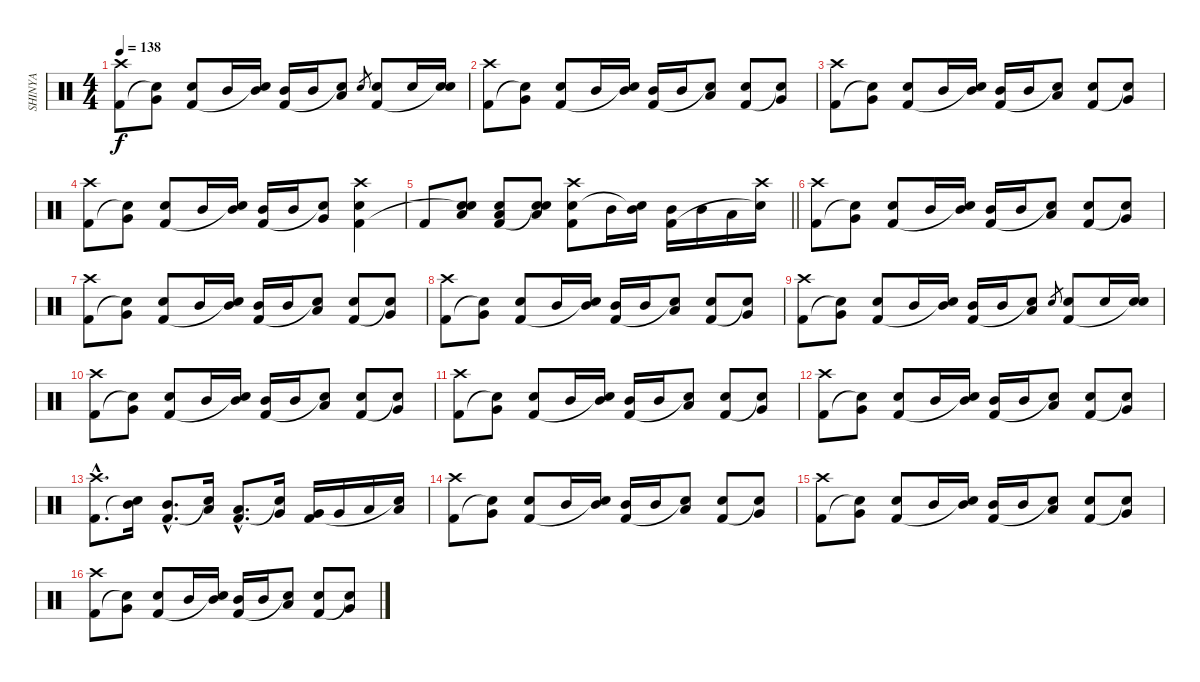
\track ("SHINYA" "SHINYA") {instrument percussion}
\staff {score}
\articulation defaults
\ts (4 4)
\tempo 138
\clef neutral
\ks c
("Crash high (hit)" "Kick (hit) 2").8{dy f} ("Very Low Tom (hit)" "Snare (hit)"{t}).8 ("Electric Snare (hit)" "Kick (hit) 2").8 "Mid Tom (hit)".16 ("Mid Tom (hit)" "Snare (hit)"{t}).16 ("Mid Tom (hit)" "Kick (hit) 2").16 "Mid Tom (hit)".16 ("Low Tom (hit)" "Snare (hit)"{t}).8 "Electric Snare (hit)".8{gr} ("Electric Snare (hit)" "Kick (hit) 2").8 "Electric Snare (hit)".16 ("Electric Snare (hit)" "Snare (hit)"{t}).16 |
("Crash high (hit)" "Kick (hit) 2").8 ("Very Low Tom (hit)" "Snare (hit)"{t}).8 ("Electric Snare (hit)" "Kick (hit) 2").8 "Mid Tom (hit)".16 ("Mid Tom (hit)" "Snare (hit)"{t}).16 ("Mid Tom (hit)" "Kick (hit) 2").16 "Mid Tom (hit)".16 ("Low Tom (hit)" "Snare (hit)"{t}).8 ("Electric Snare (hit)" "Kick (hit) 2").8 ("Very Low Tom (hit)" "Snare (hit)"{t}).8 |
("Crash high (hit)" "Kick (hit) 2").8 ("Very Low Tom (hit)" "Snare (hit)"{t}).8 ("Electric Snare (hit)" "Kick (hit) 2").8 "Mid Tom (hit)".16 ("Mid Tom (hit)" "Snare (hit)"{t}).16 ("Mid Tom (hit)" "Kick (hit) 2").16 "Mid Tom (hit)".16 ("Low Tom (hit)" "Snare (hit)"{t}).8 ("Electric Snare (hit)" "Kick (hit) 2").8 ("Very Low Tom (hit)" "Snare (hit)"{t}).8 |
("Crash high (hit)" "Kick (hit) 2").8 ("Very Low Tom (hit)" "Snare (hit)"{t}).8 ("Electric Snare (hit)" "Kick (hit) 2").8 "Mid Tom (hit)".16 ("Mid Tom (hit)" "Snare (hit)"{t}).16 ("Mid Tom (hit)" "Kick (hit) 2").16 "Mid Tom (hit)".16 ("Very Low Tom (hit)" "Snare (hit)"{t}).8 ("Crash high (hit)" "Electric Snare (hit)" "Kick (hit) 2").4 |
\barLineRight lightlight "Kick (hit) 2".8
("Electric Snare (hit)" "Low Floor Tom (hit)" "Snare (hit)"{t}).8 ("Electric Snare (hit)" "Low Floor Tom (hit)" "Kick (hit) 2").8 ("Electric Snare (hit)" "Low Floor Tom (hit)" "Snare (hit)"{t}).8 ("Crash high (hit)" "Electric Snare (hit)" "Kick (hit) 2").8 "Mid Tom (hit)".16 ("Mid Tom (hit)" "Snare (hit)"{t}).16 ("Mid Tom (hit)" "Kick (hit) 2").16 "Mid Tom (hit)".16 "Low Tom (hit)".16 ("Crash high (hit)" "Snare (hit)"{t}).16 |
("Crash high (hit)" "Kick (hit) 2").8 ("Very Low Tom (hit)" "Snare (hit)"{t}).8 ("Electric Snare (hit)" "Kick (hit) 2").8 "Mid Tom (hit)".16 ("Mid Tom (hit)" "Snare (hit)"{t}).16 ("Mid Tom (hit)" "Kick (hit) 2").16 "Mid Tom (hit)".16 ("Low Tom (hit)" "Snare (hit)"{t}).8 ("Electric Snare (hit)" "Kick (hit) 2").8 ("Very Low Tom (hit)" "Snare (hit)"{t}).8 |
("Crash high (hit)" "Kick (hit) 2").8 ("Very Low Tom (hit)" "Snare (hit)"{t}).8 ("Electric Snare (hit)" "Kick (hit) 2").8 "Mid Tom (hit)".16 ("Mid Tom (hit)" "Snare (hit)"{t}).16 ("Mid Tom (hit)" "Kick (hit) 2").16 "Mid Tom (hit)".16 ("Low Tom (hit)" "Snare (hit)"{t}).8 ("Electric Snare (hit)" "Kick (hit) 2").8 ("Very Low Tom (hit)" "Snare (hit)"{t}).8 |
("Crash high (hit)" "Kick (hit) 2").8 ("Very Low Tom (hit)" "Snare (hit)"{t}).8 ("Electric Snare (hit)" "Kick (hit) 2").8 "Mid Tom (hit)".16 ("Mid Tom (hit)" "Snare (hit)"{t}).16 ("Mid Tom (hit)" "Kick (hit) 2").16 "Mid Tom (hit)".16 ("Low Tom (hit)" "Snare (hit)"{t}).8 ("Electric Snare (hit)" "Kick (hit) 2").8 ("Very Low Tom (hit)" "Snare (hit)"{t}).8 |
("Crash high (hit)" "Kick (hit) 2").8 ("Very Low Tom (hit)" "Snare (hit)"{t}).8 ("Electric Snare (hit)" "Kick (hit) 2").8 "Mid Tom (hit)".16 ("Mid Tom (hit)" "Snare (hit)"{t}).16 ("Mid Tom (hit)" "Kick (hit) 2").16 "Mid Tom (hit)".16 ("Low Tom (hit)" "Snare (hit)"{t}).8 "Electric Snare (hit)".8{gr} ("Electric Snare (hit)" "Kick (hit) 2").8 "Electric Snare (hit)".16 ("Electric Snare (hit)" "Snare (hit)"{t}).16 |
("Crash high (hit)" "Kick (hit) 2").8 ("Very Low Tom (hit)" "Snare (hit)"{t}).8 ("Electric Snare (hit)" "Kick (hit) 2").8 "Mid Tom (hit)".16 ("Mid Tom (hit)" "Snare (hit)"{t}).16 ("Mid Tom (hit)" "Kick (hit) 2").16 "Mid Tom (hit)".16 ("Low Tom (hit)" "Snare (hit)"{t}).8 ("Electric Snare (hit)" "Kick (hit) 2").8 ("Very Low Tom (hit)" "Snare (hit)"{t}).8 |
("Crash high (hit)" "Kick (hit) 2").8 ("Very Low Tom (hit)" "Snare (hit)"{t}).8 ("Electric Snare (hit)" "Kick (hit) 2").8 "Mid Tom (hit)".16 ("Mid Tom (hit)" "Snare (hit)"{t}).16 ("Mid Tom (hit)" "Kick (hit) 2").16 "Mid Tom (hit)".16 ("Low Tom (hit)" "Snare (hit)"{t}).8 ("Electric Snare (hit)" "Kick (hit) 2").8 ("Very Low Tom (hit)" "Snare (hit)"{t}).8 |
("Crash high (hit)" "Kick (hit) 2").8 ("Very Low Tom (hit)" "Snare (hit)"{t}).8 ("Electric Snare (hit)" "Kick (hit) 2").8 "Mid Tom (hit)".16 ("Mid Tom (hit)" "Snare (hit)"{t}).16 ("Mid Tom (hit)" "Kick (hit) 2").16 "Mid Tom (hit)".16 ("Low Tom (hit)" "Snare (hit)"{t}).8 ("Electric Snare (hit)" "Kick (hit) 2").8 ("Very Low Tom (hit)" "Snare (hit)"{t}).8 |
("Crash high (hit)"{hac} "Kick (hit) 2"{hac}).8{d} ("Mid Tom (hit)" "Snare (hit)"{t}).16 ("Mid Tom (hit)"{hac} "Kick (hit) 2"{hac}).8{d} ("Low Tom (hit)" "Snare (hit)"{t}).16 ("Low Tom (hit)"{hac} "Kick (hit) 2"{hac}).8{d} ("Very Low Tom (hit)" "Snare (hit)"{t}).16 ("Very Low Tom (hit)" "Kick (hit) 2").16 "Very Low Tom (hit)".16 "Low Floor Tom (hit)".16 ("Low Floor Tom (hit)" "Snare (hit)"{t}).16 |
("Crash high (hit)" "Kick (hit) 2").8 ("Very Low Tom (hit)" "Snare (hit)"{t}).8 ("Electric Snare (hit)" "Kick (hit) 2").8 "Mid Tom (hit)".16 ("Mid Tom (hit)" "Snare (hit)"{t}).16 ("Mid Tom (hit)" "Kick (hit) 2").16 "Mid Tom (hit)".16 ("Low Tom (hit)" "Snare (hit)"{t}).8 ("Electric Snare (hit)" "Kick (hit) 2").8 ("Very Low Tom (hit)" "Snare (hit)"{t}).8 |
("Crash high (hit)" "Kick (hit) 2").8 ("Very Low Tom (hit)" "Snare (hit)"{t}).8 ("Electric Snare (hit)" "Kick (hit) 2").8 "Mid Tom (hit)".16 ("Mid Tom (hit)" "Snare (hit)"{t}).16 ("Mid Tom (hit)" "Kick (hit) 2").16 "Mid Tom (hit)".16 ("Low Tom (hit)" "Snare (hit)"{t}).8 ("Electric Snare (hit)" "Kick (hit) 2").8 ("Very Low Tom (hit)" "Snare (hit)"{t}).8 |
("Crash high (hit)" "Kick (hit) 2").8 ("Very Low Tom (hit)" "Snare (hit)"{t}).8 ("Electric Snare (hit)" "Kick (hit) 2").8 "Mid Tom (hit)".16 ("Mid Tom (hit)" "Snare (hit)"{t}).16 ("Mid Tom (hit)" "Kick (hit) 2").16 "Mid Tom (hit)".16 ("Low Tom (hit)" "Snare (hit)"{t}).8 ("Electric Snare (hit)" "Kick (hit) 2").8 ("Very Low Tom (hit)" "Snare (hit)"{t}).8
